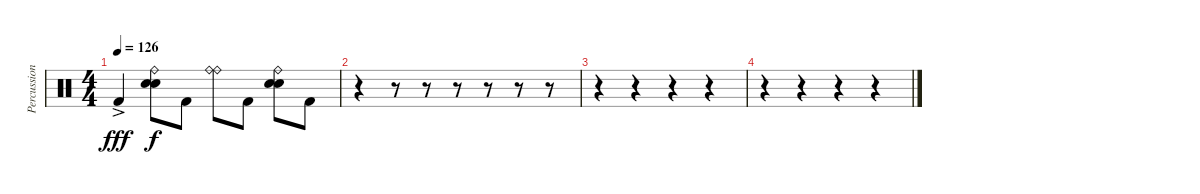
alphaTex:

\track ("Percussion" "Percussion") {instrument percussion}
\staff {score}
\articulation defaults
\ts (4 4)
\tempo 126
\clef neutral
\ks c "Kick (hit) 2"{ac}.4{dy fff}
("Snare (hit) 2" "Ride (bell)" "Snare (hit) 2").8{dy f} "Kick (hit) 2".8 ("Ride (bell)" "Ride (bell)").8 "Kick (hit) 2".8 ("Snare (hit) 2" "Ride (bell)" "Snare (hit) 2").8 "Kick (hit) 2".8 |
r.4 r.8 r.8 r.8 r.8 r.8 r.8 |
r.4 r.4 r.4 r.4 |
r.4 r.4 r.4 r.4
